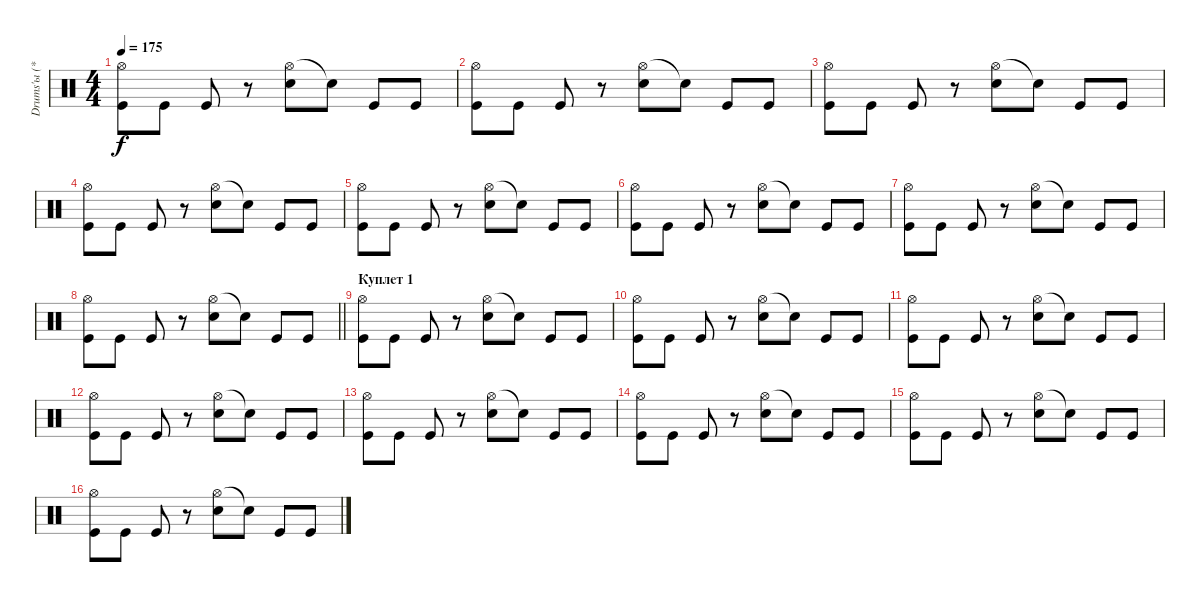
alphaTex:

\track ("Drums'ы (***)" "Drums'ы (*") {instrument percussion}
\staff {score}
\articulation defaults
\ts (4 4)
\tempo 175
\clef neutral
\ks c
("Hi-Hat (open)" "Kick (hit)").8{dy f} "Kick (hit)".8 "Kick (hit)".8 r.8 ("Hi-Hat (open)" "Electric Snare (hit)").8 "Snare (hit)"{t}.8 "Kick (hit)".8 "Kick (hit)".8 |
("Hi-Hat (open)" "Kick (hit)").8 "Kick (hit)".8 "Kick (hit)".8 r.8 ("Hi-Hat (open)" "Electric Snare (hit)").8 "Snare (hit)"{t}.8 "Kick (hit)".8 "Kick (hit)".8 |
("Hi-Hat (open)" "Kick (hit)").8 "Kick (hit)".8 "Kick (hit)".8 r.8 ("Hi-Hat (open)" "Electric Snare (hit)").8 "Snare (hit)"{t}.8 "Kick (hit)".8 "Kick (hit)".8 |
("Hi-Hat (open)" "Kick (hit)").8 "Kick (hit)".8 "Kick (hit)".8 r.8 ("Hi-Hat (open)" "Electric Snare (hit)").8 "Snare (hit)"{t}.8 "Kick (hit)".8 "Kick (hit)".8 |
("Hi-Hat (open)" "Kick (hit)").8 "Kick (hit)".8 "Kick (hit)".8 r.8 ("Hi-Hat (open)" "Electric Snare (hit)").8 "Snare (hit)"{t}.8 "Kick (hit)".8 "Kick (hit)".8 |
("Hi-Hat (open)" "Kick (hit)").8 "Kick (hit)".8 "Kick (hit)".8 r.8 ("Hi-Hat (open)" "Electric Snare (hit)").8 "Snare (hit)"{t}.8 "Kick (hit)".8 "Kick (hit)".8 |
("Hi-Hat (open)" "Kick (hit)").8 "Kick (hit)".8 "Kick (hit)".8 r.8 ("Hi-Hat (open)" "Electric Snare (hit)").8 "Snare (hit)"{t}.8 "Kick (hit)".8 "Kick (hit)".8 |
\barLineRight lightlight
("Hi-Hat (open)" "Kick (hit)").8 "Kick (hit)".8 "Kick (hit)".8 r.8 ("Hi-Hat (open)" "Electric Snare (hit)").8 "Snare (hit)"{t}.8 "Kick (hit)".8 "Kick (hit)".8 |
\section ("" "Куплет 1")
("Hi-Hat (open)" "Kick (hit)").8 "Kick (hit)".8 "Kick (hit)".8 r.8 ("Hi-Hat (open)" "Electric Snare (hit)").8 "Snare (hit)"{t}.8 "Kick (hit)".8 "Kick (hit)".8 |
("Hi-Hat (open)" "Kick (hit)").8 "Kick (hit)".8 "Kick (hit)".8 r.8 ("Hi-Hat (open)" "Electric Snare (hit)").8 "Snare (hit)"{t}.8 "Kick (hit)".8 "Kick (hit)".8 |
("Hi-Hat (open)" "Kick (hit)").8 "Kick (hit)".8 "Kick (hit)".8 r.8 ("Hi-Hat (open)" "Electric Snare (hit)").8 "Snare (hit)"{t}.8 "Kick (hit)".8 "Kick (hit)".8 |
("Hi-Hat (open)" "Kick (hit)").8 "Kick (hit)".8 "Kick (hit)".8 r.8 ("Hi-Hat (open)" "Electric Snare (hit)").8 "Snare (hit)"{t}.8 "Kick (hit)".8 "Kick (hit)".8 |
("Hi-Hat (open)" "Kick (hit)").8 "Kick (hit)".8 "Kick (hit)".8 r.8 ("Hi-Hat (open)" "Electric Snare (hit)").8 "Snare (hit)"{t}.8 "Kick (hit)".8 "Kick (hit)".8 |
("Hi-Hat (open)" "Kick (hit)").8 "Kick (hit)".8 "Kick (hit)".8 r.8 ("Hi-Hat (open)" "Electric Snare (hit)").8 "Snare (hit)"{t}.8 "Kick (hit)".8 "Kick (hit)".8 |
("Hi-Hat (open)" "Kick (hit)").8 "Kick (hit)".8 "Kick (hit)".8 r.8 ("Hi-Hat (open)" "Electric Snare (hit)").8 "Snare (hit)"{t}.8 "Kick (hit)".8 "Kick (hit)".8 |
("Hi-Hat (open)" "Kick (hit)").8 "Kick (hit)".8 "Kick (hit)".8 r.8 ("Hi-Hat (open)" "Electric Snare (hit)").8 "Snare (hit)"{t}.8 "Kick (hit)".8 "Kick (hit)".8
